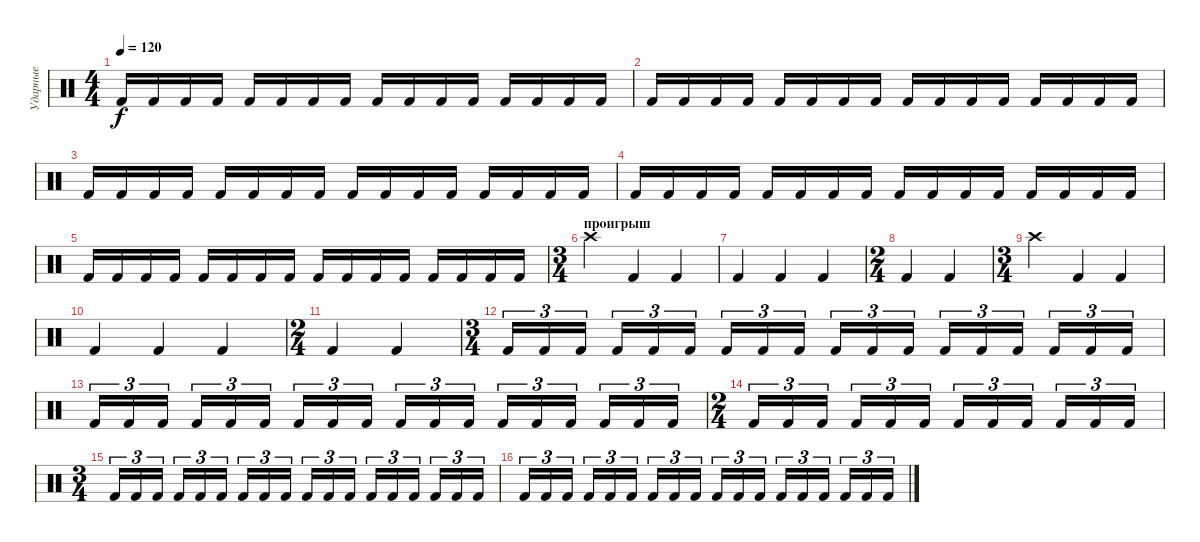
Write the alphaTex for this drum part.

\track ("Ударные" "Ударные") {instrument percussion}
\staff {score}
\articulation defaults
\ts (4 4)
\tempo 120
\clef neutral
\ks c "Kick (hit) 2".16{dy f} "Kick (hit) 2".16 "Kick (hit) 2".16 "Kick (hit) 2".16 "Kick (hit) 2".16 "Kick (hit) 2".16 "Kick (hit) 2".16 "Kick (hit) 2".16 "Kick (hit) 2".16 "Kick (hit) 2".16 "Kick (hit) 2".16 "Kick (hit) 2".16 "Kick (hit) 2".16 "Kick (hit) 2".16 "Kick (hit) 2".16 "Kick (hit) 2".16
|
"Kick (hit) 2".16 "Kick (hit) 2".16 "Kick (hit) 2".16 "Kick (hit) 2".16 "Kick (hit) 2".16 "Kick (hit) 2".16 "Kick (hit) 2".16 "Kick (hit) 2".16 "Kick (hit) 2".16 "Kick (hit) 2".16 "Kick (hit) 2".16 "Kick (hit) 2".16 "Kick (hit) 2".16 "Kick (hit) 2".16 "Kick (hit) 2".16 "Kick (hit) 2".16 |
"Kick (hit) 2".16 "Kick (hit) 2".16 "Kick (hit) 2".16 "Kick (hit) 2".16 "Kick (hit) 2".16 "Kick (hit) 2".16 "Kick (hit) 2".16 "Kick (hit) 2".16 "Kick (hit) 2".16 "Kick (hit) 2".16 "Kick (hit) 2".16 "Kick (hit) 2".16 "Kick (hit) 2".16 "Kick (hit) 2".16 "Kick (hit) 2".16 "Kick (hit) 2".16 |
"Kick (hit) 2".16 "Kick (hit) 2".16 "Kick (hit) 2".16 "Kick (hit) 2".16 "Kick (hit) 2".16 "Kick (hit) 2".16 "Kick (hit) 2".16 "Kick (hit) 2".16 "Kick (hit) 2".16 "Kick (hit) 2".16 "Kick (hit) 2".16 "Kick (hit) 2".16 "Kick (hit) 2".16 "Kick (hit) 2".16 "Kick (hit) 2".16 "Kick (hit) 2".16 |
"Kick (hit) 2".16 "Kick (hit) 2".16 "Kick (hit) 2".16 "Kick (hit) 2".16 "Kick (hit) 2".16 "Kick (hit) 2".16 "Kick (hit) 2".16 "Kick (hit) 2".16 "Kick (hit) 2".16 "Kick (hit) 2".16 "Kick (hit) 2".16 "Kick (hit) 2".16 "Kick (hit) 2".16 "Kick (hit) 2".16 "Kick (hit) 2".16 "Kick (hit) 2".16 |
\ts (3 4)
\section ("" "проигрыш")
"Crash high (hit)".4 "Kick (hit) 2".4 "Kick (hit) 2".4 |
"Kick (hit) 2".4 "Kick (hit) 2".4 "Kick (hit) 2".4 |
\ts (2 4)
"Kick (hit) 2".4 "Kick (hit) 2".4 |
\ts (3 4)
"Crash high (hit)".4 "Kick (hit) 2".4 "Kick (hit) 2".4 |
"Kick (hit) 2".4 "Kick (hit) 2".4 "Kick (hit) 2".4 |
\ts (2 4)
"Kick (hit) 2".4 "Kick (hit) 2".4 |
\ts (3 4)
"Kick (hit) 2".16{tu (3 2)} "Kick (hit) 2".16{tu (3 2)} "Kick (hit) 2".16{tu (3 2)} "Kick (hit) 2".16{tu (3 2)} "Kick (hit) 2".16{tu (3 2)} "Kick (hit) 2".16{tu (3 2)} "Kick (hit) 2".16{tu (3 2)} "Kick (hit) 2".16{tu (3 2)} "Kick (hit) 2".16{tu (3 2)} "Kick (hit) 2".16{tu (3 2)} "Kick (hit) 2".16{tu (3 2)} "Kick (hit) 2".16{tu (3 2)} "Kick (hit) 2".16{tu (3 2)} "Kick (hit) 2".16{tu (3 2)} "Kick (hit) 2".16{tu (3 2)} "Kick (hit) 2".16{tu (3 2)} "Kick (hit) 2".16{tu (3 2)} "Kick (hit) 2".16{tu (3 2)} |
"Kick (hit) 2".16{tu (3 2)} "Kick (hit) 2".16{tu (3 2)} "Kick (hit) 2".16{tu (3 2)} "Kick (hit) 2".16{tu (3 2)} "Kick (hit) 2".16{tu (3 2)} "Kick (hit) 2".16{tu (3 2)} "Kick (hit) 2".16{tu (3 2)} "Kick (hit) 2".16{tu (3 2)} "Kick (hit) 2".16{tu (3 2)} "Kick (hit) 2".16{tu (3 2)} "Kick (hit) 2".16{tu (3 2)} "Kick (hit) 2".16{tu (3 2)} "Kick (hit) 2".16{tu (3 2)} "Kick (hit) 2".16{tu (3 2)} "Kick (hit) 2".16{tu (3 2)} "Kick (hit) 2".16{tu (3 2)} "Kick (hit) 2".16{tu (3 2)} "Kick (hit) 2".16{tu (3 2)} |
\ts (2 4)
"Kick (hit) 2".16{tu (3 2)} "Kick (hit) 2".16{tu (3 2)} "Kick (hit) 2".16{tu (3 2)} "Kick (hit) 2".16{tu (3 2)} "Kick (hit) 2".16{tu (3 2)} "Kick (hit) 2".16{tu (3 2)} "Kick (hit) 2".16{tu (3 2)} "Kick (hit) 2".16{tu (3 2)} "Kick (hit) 2".16{tu (3 2)} "Kick (hit) 2".16{tu (3 2)} "Kick (hit) 2".16{tu (3 2)} "Kick (hit) 2".16{tu (3 2)} |
\ts (3 4)
"Kick (hit) 2".16{tu (3 2)} "Kick (hit) 2".16{tu (3 2)} "Kick (hit) 2".16{tu (3 2)} "Kick (hit) 2".16{tu (3 2)} "Kick (hit) 2".16{tu (3 2)} "Kick (hit) 2".16{tu (3 2)} "Kick (hit) 2".16{tu (3 2)} "Kick (hit) 2".16{tu (3 2)} "Kick (hit) 2".16{tu (3 2)} "Kick (hit) 2".16{tu (3 2)} "Kick (hit) 2".16{tu (3 2)} "Kick (hit) 2".16{tu (3 2)} "Kick (hit) 2".16{tu (3 2)} "Kick (hit) 2".16{tu (3 2)} "Kick (hit) 2".16{tu (3 2)} "Kick (hit) 2".16{tu (3 2)} "Kick (hit) 2".16{tu (3 2)} "Kick (hit) 2".16{tu (3 2)} |
"Kick (hit) 2".16{tu (3 2)} "Kick (hit) 2".16{tu (3 2)} "Kick (hit) 2".16{tu (3 2)} "Kick (hit) 2".16{tu (3 2)} "Kick (hit) 2".16{tu (3 2)} "Kick (hit) 2".16{tu (3 2)} "Kick (hit) 2".16{tu (3 2)} "Kick (hit) 2".16{tu (3 2)} "Kick (hit) 2".16{tu (3 2)} "Kick (hit) 2".16{tu (3 2)} "Kick (hit) 2".16{tu (3 2)} "Kick (hit) 2".16{tu (3 2)} "Kick (hit) 2".16{tu (3 2)} "Kick (hit) 2".16{tu (3 2)} "Kick (hit) 2".16{tu (3 2)} "Kick (hit) 2".16{tu (3 2)} "Kick (hit) 2".16{tu (3 2)} "Kick (hit) 2".16{tu (3 2)}
